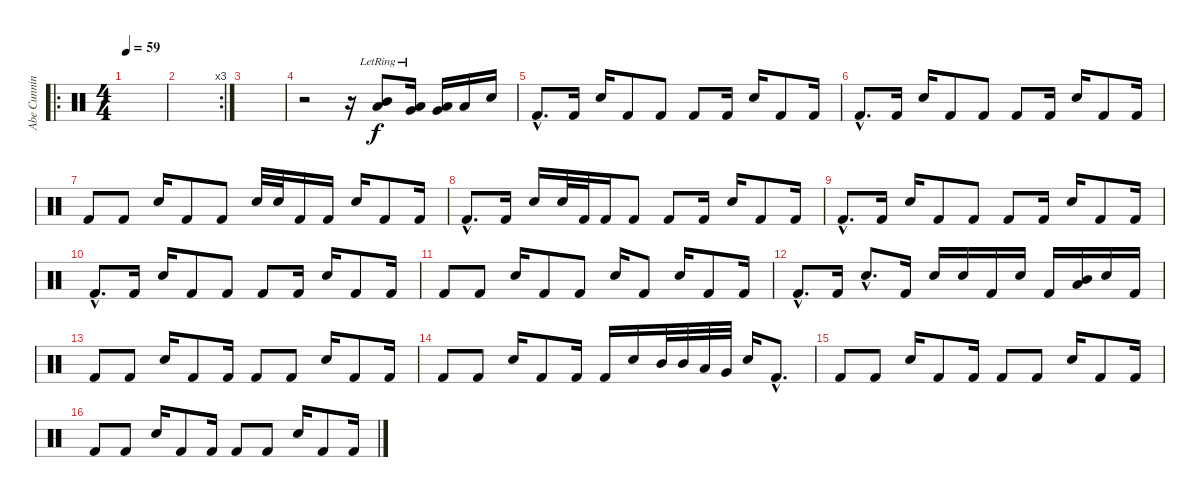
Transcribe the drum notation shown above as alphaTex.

\track ("Abe Cunningham Toms& Snare" "Abe Cunnin") {instrument percussion}
\staff {score}
\articulation defaults
\ro
\ts (4 4)
\tempo 59
\clef neutral
\ks c
|
\rc 3
|
|
r.2 r.16 ("Mid Tom (hit)"{lr} "Low Tom (hit)"{lr}).8 ("Low Tom (hit)"{lr} "Very Low Tom (hit)"{lr}).16 ("Low Floor Tom (hit)" "Very Low Tom (hit)").16 "Low Floor Tom (hit)".16 "Snare (hit) 2".16 |
"Kick (hit) 2"{hac}.8{d} "Kick (hit) 2".16 "Snare (hit) 2".16 "Kick (hit) 2".8 "Kick (hit) 2".8 "Kick (hit) 2".8 "Kick (hit) 2".16 "Snare (hit) 2".16 "Kick (hit) 2".8 "Kick (hit) 2".16 |
"Kick (hit) 2"{hac}.8{d} "Kick (hit) 2".16 "Snare (hit) 2".16 "Kick (hit) 2".8 "Kick (hit) 2".8 "Kick (hit) 2".8 "Kick (hit) 2".16 "Snare (hit) 2".16 "Kick (hit) 2".8 "Kick (hit) 2".16 |
"Kick (hit) 2".8 "Kick (hit) 2".8 "Snare (hit) 2".16 "Kick (hit) 2".8 "Kick (hit) 2".8 "Snare (hit) 2".32 "Snare (hit) 2".32 "Kick (hit) 2".16 "Kick (hit) 2".16 "Snare (hit) 2".16 "Kick (hit) 2".8 "Kick (hit) 2".16 |
"Kick (hit) 2"{hac}.8{d} "Kick (hit) 2".16 "Snare (hit) 2".16 "Snare (hit) 2".32 "Kick (hit) 2".32 "Kick (hit) 2".16 "Kick (hit) 2".8 "Kick (hit) 2".8 "Kick (hit) 2".16 "Snare (hit) 2".16 "Kick (hit) 2".8 "Kick (hit) 2".16 |
"Kick (hit) 2"{hac}.8{d} "Kick (hit) 2".16 "Snare (hit) 2".16 "Kick (hit) 2".8 "Kick (hit) 2".8 "Kick (hit) 2".8 "Kick (hit) 2".16 "Snare (hit) 2".16 "Kick (hit) 2".8 "Kick (hit) 2".16 |
"Kick (hit) 2"{hac}.8{d} "Kick (hit) 2".16 "Snare (hit) 2".16 "Kick (hit) 2".8 "Kick (hit) 2".8 "Kick (hit) 2".8 "Kick (hit) 2".16 "Snare (hit) 2".16 "Kick (hit) 2".8 "Kick (hit) 2".16 |
"Kick (hit) 2".8 "Kick (hit) 2".8 "Snare (hit) 2".16 "Kick (hit) 2".8 "Kick (hit) 2".8 "Snare (hit) 2".16 "Kick (hit) 2".8 "Snare (hit) 2".16 "Kick (hit) 2".8 "Kick (hit) 2".16 |
"Kick (hit) 2"{hac}.8{d} "Kick (hit) 2".16 "Snare (hit) 2"{hac}.8{d} "Kick (hit) 2".16 "Snare (hit) 2".16 "Snare (hit) 2".16 "Kick (hit) 2".16 "Snare (hit) 2".16 "Kick (hit) 2".16 ("Mid Tom (hit)" "Low Tom (hit)").16 "Snare (hit) 2".16 "Kick (hit) 2".16 |
"Kick (hit) 2".8 "Kick (hit) 2".8 "Snare (hit) 2".16 "Kick (hit) 2".8 "Kick (hit) 2".16 "Kick (hit) 2".8 "Kick (hit) 2".8 "Snare (hit) 2".16 "Kick (hit) 2".8 "Kick (hit) 2".16 |
"Kick (hit) 2".8 "Kick (hit) 2".8 "Snare (hit) 2".16 "Kick (hit) 2".8 "Kick (hit) 2".16 "Kick (hit) 2".16 "Snare (hit) 2".16 "Mid Tom (hit)".32 "Mid Tom (hit)".32 "Low Tom (hit)".32 "Very Low Tom (hit)".32 "Snare (hit) 2".16 "Kick (hit) 2"{hac}.8{d} |
"Kick (hit) 2".8 "Kick (hit) 2".8 "Snare (hit) 2".16 "Kick (hit) 2".8 "Kick (hit) 2".16 "Kick (hit) 2".8 "Kick (hit) 2".8 "Snare (hit) 2".16 "Kick (hit) 2".8 "Kick (hit) 2".16 |
"Kick (hit) 2".8 "Kick (hit) 2".8 "Snare (hit) 2".16 "Kick (hit) 2".8 "Kick (hit) 2".16 "Kick (hit) 2".8 "Kick (hit) 2".8 "Snare (hit) 2".16 "Kick (hit) 2".8 "Kick (hit) 2".16
